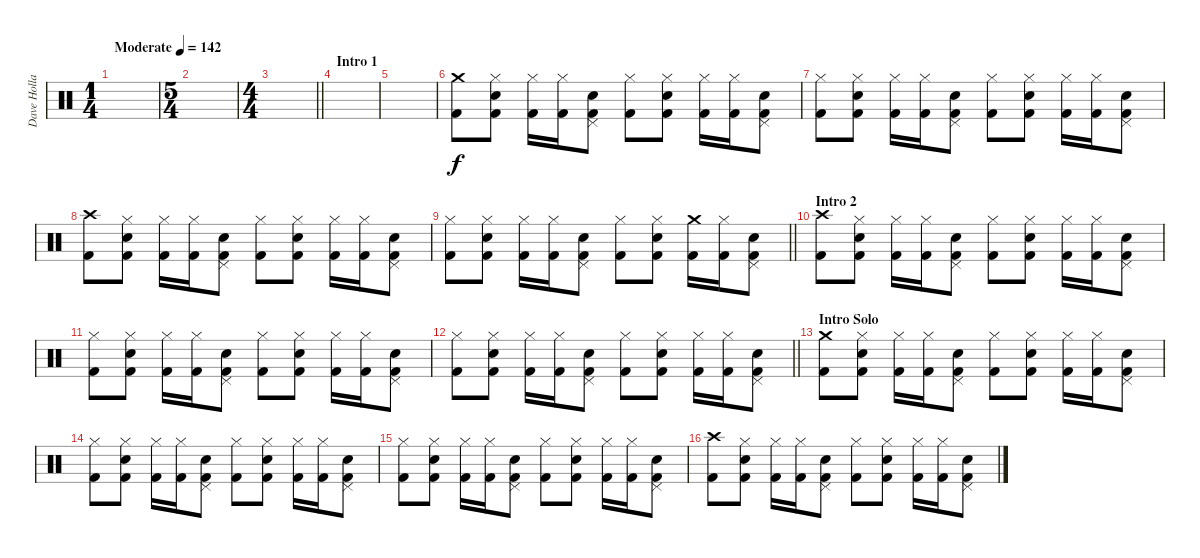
\track ("Dave Holland" "Dave Holla") {instrument percussion}
\staff {score}
\articulation defaults
\ts (1 4)
\tempo (142 "Moderate")
\clef neutral
\ks c
|
\ts (5 4)
|
\ts (4 4)
\barLineRight lightlight
|
\section ("" "Intro 1")
|
|
("Crash medium (hit)" "Kick (hit) 2").8 ("Hi-Hat (closed)" "Snare (hit) 2" "Kick (hit) 2").8 ("Hi-Hat (closed)" "Kick (hit) 2").16 ("Hi-Hat (closed)" "Kick (hit) 2").16 ("Pedal Hi-Hat (hit)" "Snare (hit) 2" "Kick (hit) 2").8 ("Hi-Hat (closed)" "Kick (hit) 2").8 ("Hi-Hat (closed)" "Snare (hit) 2" "Kick (hit) 2").8 ("Hi-Hat (closed)" "Kick (hit) 2").16 ("Hi-Hat (closed)" "Kick (hit) 2").16 ("Pedal Hi-Hat (hit)" "Snare (hit) 2" "Kick (hit) 2").8 |
("Hi-Hat (closed)" "Kick (hit) 2").8 ("Hi-Hat (closed)" "Snare (hit) 2" "Kick (hit) 2").8 ("Hi-Hat (closed)" "Kick (hit) 2").16 ("Hi-Hat (closed)" "Kick (hit) 2").16 ("Pedal Hi-Hat (hit)" "Snare (hit) 2" "Kick (hit) 2").8 ("Hi-Hat (closed)" "Kick (hit) 2").8 ("Hi-Hat (closed)" "Snare (hit) 2" "Kick (hit) 2").8 ("Hi-Hat (closed)" "Kick (hit) 2").16 ("Hi-Hat (closed)" "Kick (hit) 2").16 ("Pedal Hi-Hat (hit)" "Snare (hit) 2" "Kick (hit) 2").8 |
("Crash high (hit)" "Kick (hit) 2").8 ("Hi-Hat (closed)" "Snare (hit) 2" "Kick (hit) 2").8 ("Hi-Hat (closed)" "Kick (hit) 2").16 ("Hi-Hat (closed)" "Kick (hit) 2").16 ("Pedal Hi-Hat (hit)" "Snare (hit) 2" "Kick (hit) 2").8 ("Hi-Hat (closed)" "Kick (hit) 2").8 ("Hi-Hat (closed)" "Snare (hit) 2" "Kick (hit) 2").8 ("Hi-Hat (closed)" "Kick (hit) 2").16 ("Hi-Hat (closed)" "Kick (hit) 2").16 ("Pedal Hi-Hat (hit)" "Snare (hit) 2" "Kick (hit) 2").8 |
\barLineRight lightlight
("Hi-Hat (closed)" "Kick (hit) 2").8 ("Hi-Hat (closed)" "Snare (hit) 2" "Kick (hit) 2").8 ("Hi-Hat (closed)" "Kick (hit) 2").16 ("Hi-Hat (closed)" "Kick (hit) 2").16 ("Pedal Hi-Hat (hit)" "Snare (hit) 2" "Kick (hit) 2").8 ("Hi-Hat (closed)" "Kick (hit) 2").8 ("Hi-Hat (closed)" "Snare (hit) 2" "Kick (hit) 2").8 ("Crash medium (hit)" "Kick (hit) 2").16 ("Hi-Hat (closed)" "Kick (hit) 2").16 ("Pedal Hi-Hat (hit)" "Snare (hit) 2" "Kick (hit) 2").8 |
\section ("" "Intro 2")
("Crash high (hit)" "Kick (hit) 2").8 ("Hi-Hat (closed)" "Snare (hit) 2" "Kick (hit) 2").8 ("Hi-Hat (closed)" "Kick (hit) 2").16 ("Hi-Hat (closed)" "Kick (hit) 2").16 ("Pedal Hi-Hat (hit)" "Snare (hit) 2" "Kick (hit) 2").8 ("Hi-Hat (closed)" "Kick (hit) 2").8 ("Hi-Hat (closed)" "Snare (hit) 2" "Kick (hit) 2").8 ("Hi-Hat (closed)" "Kick (hit) 2").16 ("Hi-Hat (closed)" "Kick (hit) 2").16 ("Pedal Hi-Hat (hit)" "Snare (hit) 2" "Kick (hit) 2").8 |
("Hi-Hat (closed)" "Kick (hit) 2").8 ("Hi-Hat (closed)" "Snare (hit) 2" "Kick (hit) 2").8 ("Hi-Hat (closed)" "Kick (hit) 2").16 ("Hi-Hat (closed)" "Kick (hit) 2").16 ("Pedal Hi-Hat (hit)" "Snare (hit) 2" "Kick (hit) 2").8 ("Hi-Hat (closed)" "Kick (hit) 2").8 ("Hi-Hat (closed)" "Snare (hit) 2" "Kick (hit) 2").8 ("Hi-Hat (closed)" "Kick (hit) 2").16 ("Hi-Hat (closed)" "Kick (hit) 2").16 ("Pedal Hi-Hat (hit)" "Snare (hit) 2" "Kick (hit) 2").8 |
\barLineRight lightlight
("Hi-Hat (closed)" "Kick (hit) 2").8 ("Hi-Hat (closed)" "Snare (hit) 2" "Kick (hit) 2").8 ("Hi-Hat (closed)" "Kick (hit) 2").16 ("Hi-Hat (closed)" "Kick (hit) 2").16 ("Pedal Hi-Hat (hit)" "Snare (hit) 2" "Kick (hit) 2").8 ("Hi-Hat (closed)" "Kick (hit) 2").8 ("Hi-Hat (closed)" "Snare (hit) 2" "Kick (hit) 2").8 ("Hi-Hat (closed)" "Kick (hit) 2").16 ("Hi-Hat (closed)" "Kick (hit) 2").16 ("Pedal Hi-Hat (hit)" "Snare (hit) 2" "Kick (hit) 2").8 |
\section ("" "Intro Solo")
("Crash medium (hit)" "Kick (hit) 2").8 ("Hi-Hat (closed)" "Snare (hit) 2" "Kick (hit) 2").8 ("Hi-Hat (closed)" "Kick (hit) 2").16 ("Hi-Hat (closed)" "Kick (hit) 2").16 ("Pedal Hi-Hat (hit)" "Snare (hit) 2" "Kick (hit) 2").8 ("Hi-Hat (closed)" "Kick (hit) 2").8 ("Hi-Hat (closed)" "Snare (hit) 2" "Kick (hit) 2").8 ("Hi-Hat (closed)" "Kick (hit) 2").16 ("Hi-Hat (closed)" "Kick (hit) 2").16 ("Pedal Hi-Hat (hit)" "Snare (hit) 2" "Kick (hit) 2").8 |
("Hi-Hat (closed)" "Kick (hit) 2").8 ("Hi-Hat (closed)" "Snare (hit) 2" "Kick (hit) 2").8 ("Hi-Hat (closed)" "Kick (hit) 2").16 ("Hi-Hat (closed)" "Kick (hit) 2").16 ("Pedal Hi-Hat (hit)" "Snare (hit) 2" "Kick (hit) 2").8 ("Hi-Hat (closed)" "Kick (hit) 2").8 ("Hi-Hat (closed)" "Snare (hit) 2" "Kick (hit) 2").8 ("Hi-Hat (closed)" "Kick (hit) 2").16 ("Hi-Hat (closed)" "Kick (hit) 2").16 ("Pedal Hi-Hat (hit)" "Snare (hit) 2" "Kick (hit) 2").8 |
("Hi-Hat (closed)" "Kick (hit) 2").8 ("Hi-Hat (closed)" "Snare (hit) 2" "Kick (hit) 2").8 ("Hi-Hat (closed)" "Kick (hit) 2").16 ("Hi-Hat (closed)" "Kick (hit) 2").16 ("Pedal Hi-Hat (hit)" "Snare (hit) 2" "Kick (hit) 2").8 ("Hi-Hat (closed)" "Kick (hit) 2").8 ("Hi-Hat (closed)" "Snare (hit) 2" "Kick (hit) 2").8 ("Hi-Hat (closed)" "Kick (hit) 2").16 ("Hi-Hat (closed)" "Kick (hit) 2").16 ("Pedal Hi-Hat (hit)" "Snare (hit) 2" "Kick (hit) 2").8 |
("Crash high (hit)" "Kick (hit) 2").8 ("Hi-Hat (closed)" "Snare (hit) 2" "Kick (hit) 2").8 ("Hi-Hat (closed)" "Kick (hit) 2").16 ("Hi-Hat (closed)" "Kick (hit) 2").16 ("Pedal Hi-Hat (hit)" "Snare (hit) 2" "Kick (hit) 2").8 ("Hi-Hat (closed)" "Kick (hit) 2").8 ("Hi-Hat (closed)" "Snare (hit) 2" "Kick (hit) 2").8 ("Hi-Hat (closed)" "Kick (hit) 2").16 ("Hi-Hat (closed)" "Kick (hit) 2").16 ("Pedal Hi-Hat (hit)" "Snare (hit) 2" "Kick (hit) 2").8
